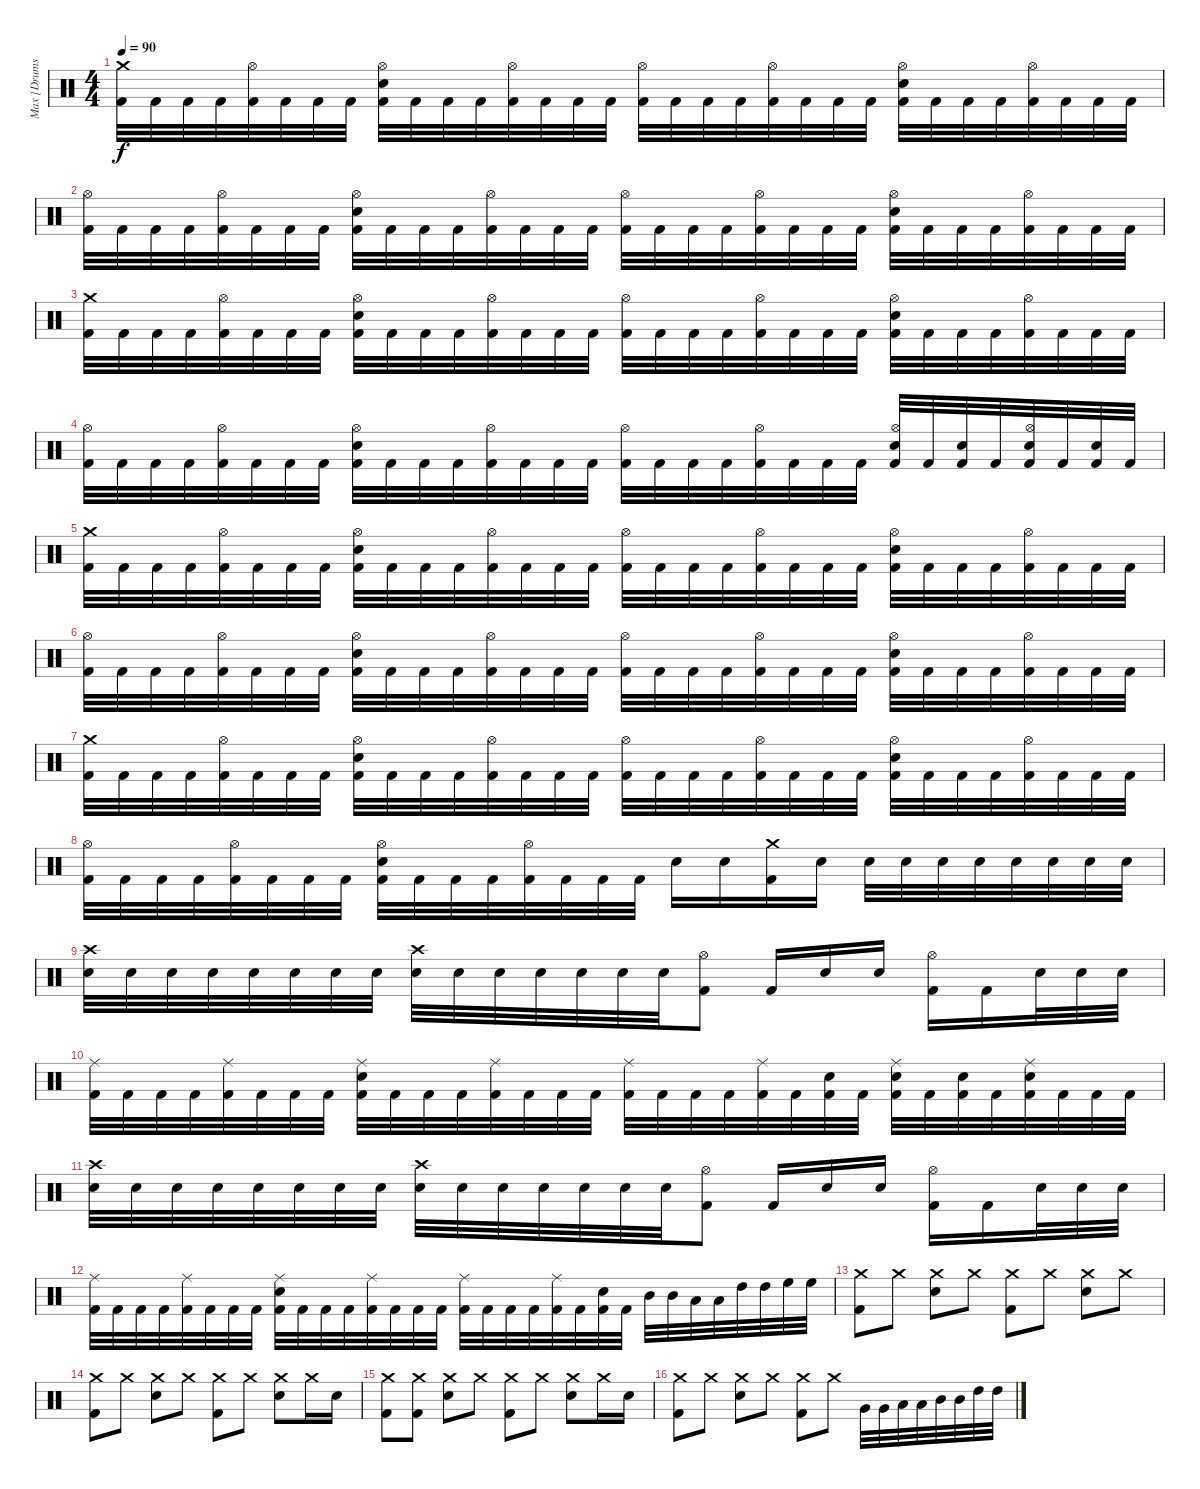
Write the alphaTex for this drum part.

\track ("Max [Drums]" "Max [Drums") {instrument percussion}
\staff {score}
\articulation defaults
\ts (4 4)
\tempo 90
\clef neutral
\ks c
("Crash medium (hit)" "Kick (hit) 2").32{dy f} "Kick (hit) 2".32 "Kick (hit) 2".32 "Kick (hit) 2".32 ("Hi-Hat (open)" "Kick (hit) 2").32 "Kick (hit) 2".32 "Kick (hit) 2".32 "Kick (hit) 2".32 ("Hi-Hat (open)" "Snare (hit) 2" "Kick (hit) 2").32 "Kick (hit) 2".32 "Kick (hit) 2".32 "Kick (hit) 2".32 ("Hi-Hat (open)" "Kick (hit) 2").32 "Kick (hit) 2".32 "Kick (hit) 2".32 "Kick (hit) 2".32 ("Hi-Hat (open)" "Kick (hit) 2").32 "Kick (hit) 2".32 "Kick (hit) 2".32 "Kick (hit) 2".32 ("Hi-Hat (open)" "Kick (hit) 2").32 "Kick (hit) 2".32 "Kick (hit) 2".32 "Kick (hit) 2".32 ("Hi-Hat (open)" "Snare (hit) 2" "Kick (hit) 2").32 "Kick (hit) 2".32 "Kick (hit) 2".32 "Kick (hit) 2".32 ("Hi-Hat (open)" "Kick (hit) 2").32 "Kick (hit) 2".32 "Kick (hit) 2".32 "Kick (hit) 2".32 |
("Hi-Hat (open)" "Kick (hit) 2").32 "Kick (hit) 2".32 "Kick (hit) 2".32 "Kick (hit) 2".32 ("Hi-Hat (open)" "Kick (hit) 2").32 "Kick (hit) 2".32 "Kick (hit) 2".32 "Kick (hit) 2".32 ("Hi-Hat (open)" "Snare (hit) 2" "Kick (hit) 2").32 "Kick (hit) 2".32 "Kick (hit) 2".32 "Kick (hit) 2".32 ("Hi-Hat (open)" "Kick (hit) 2").32 "Kick (hit) 2".32 "Kick (hit) 2".32 "Kick (hit) 2".32 ("Hi-Hat (open)" "Kick (hit) 2").32 "Kick (hit) 2".32 "Kick (hit) 2".32 "Kick (hit) 2".32 ("Hi-Hat (open)" "Kick (hit) 2").32 "Kick (hit) 2".32 "Kick (hit) 2".32 "Kick (hit) 2".32 ("Hi-Hat (open)" "Snare (hit) 2" "Kick (hit) 2").32 "Kick (hit) 2".32 "Kick (hit) 2".32 "Kick (hit) 2".32 ("Hi-Hat (open)" "Kick (hit) 2").32 "Kick (hit) 2".32 "Kick (hit) 2".32 "Kick (hit) 2".32 |
("Crash medium (hit)" "Kick (hit) 2").32 "Kick (hit) 2".32 "Kick (hit) 2".32 "Kick (hit) 2".32 ("Hi-Hat (open)" "Kick (hit) 2").32 "Kick (hit) 2".32 "Kick (hit) 2".32 "Kick (hit) 2".32 ("Hi-Hat (open)" "Snare (hit) 2" "Kick (hit) 2").32 "Kick (hit) 2".32 "Kick (hit) 2".32 "Kick (hit) 2".32 ("Hi-Hat (open)" "Kick (hit) 2").32 "Kick (hit) 2".32 "Kick (hit) 2".32 "Kick (hit) 2".32 ("Hi-Hat (open)" "Kick (hit) 2").32 "Kick (hit) 2".32 "Kick (hit) 2".32 "Kick (hit) 2".32 ("Hi-Hat (open)" "Kick (hit) 2").32 "Kick (hit) 2".32 "Kick (hit) 2".32 "Kick (hit) 2".32 ("Hi-Hat (open)" "Snare (hit) 2" "Kick (hit) 2").32 "Kick (hit) 2".32 "Kick (hit) 2".32 "Kick (hit) 2".32 ("Hi-Hat (open)" "Kick (hit) 2").32 "Kick (hit) 2".32 "Kick (hit) 2".32 "Kick (hit) 2".32 |
("Hi-Hat (open)" "Kick (hit) 2").32 "Kick (hit) 2".32 "Kick (hit) 2".32 "Kick (hit) 2".32 ("Hi-Hat (open)" "Kick (hit) 2").32 "Kick (hit) 2".32 "Kick (hit) 2".32 "Kick (hit) 2".32 ("Hi-Hat (open)" "Snare (hit) 2" "Kick (hit) 2").32 "Kick (hit) 2".32 "Kick (hit) 2".32 "Kick (hit) 2".32 ("Hi-Hat (open)" "Kick (hit) 2").32 "Kick (hit) 2".32 "Kick (hit) 2".32 "Kick (hit) 2".32 ("Hi-Hat (open)" "Kick (hit) 2").32 "Kick (hit) 2".32 "Kick (hit) 2".32 "Kick (hit) 2".32 ("Hi-Hat (open)" "Kick (hit) 2").32 "Kick (hit) 2".32 "Kick (hit) 2".32 "Kick (hit) 2".32 ("Hi-Hat (open)" "Snare (hit) 2" "Kick (hit) 2").32 "Kick (hit) 2".32 ("Snare (hit) 2" "Kick (hit) 2").32 "Kick (hit) 2".32 ("Hi-Hat (open)" "Snare (hit) 2" "Kick (hit) 2").32 "Kick (hit) 2".32 ("Snare (hit) 2" "Kick (hit) 2").32 "Kick (hit) 2".32 |
("Crash medium (hit)" "Kick (hit) 2").32 "Kick (hit) 2".32 "Kick (hit) 2".32 "Kick (hit) 2".32 ("Hi-Hat (open)" "Kick (hit) 2").32 "Kick (hit) 2".32 "Kick (hit) 2".32 "Kick (hit) 2".32 ("Hi-Hat (open)" "Snare (hit) 2" "Kick (hit) 2").32 "Kick (hit) 2".32 "Kick (hit) 2".32 "Kick (hit) 2".32 ("Hi-Hat (open)" "Kick (hit) 2").32 "Kick (hit) 2".32 "Kick (hit) 2".32 "Kick (hit) 2".32 ("Hi-Hat (open)" "Kick (hit) 2").32 "Kick (hit) 2".32 "Kick (hit) 2".32 "Kick (hit) 2".32 ("Hi-Hat (open)" "Kick (hit) 2").32 "Kick (hit) 2".32 "Kick (hit) 2".32 "Kick (hit) 2".32 ("Hi-Hat (open)" "Snare (hit) 2" "Kick (hit) 2").32 "Kick (hit) 2".32 "Kick (hit) 2".32 "Kick (hit) 2".32 ("Hi-Hat (open)" "Kick (hit) 2").32 "Kick (hit) 2".32 "Kick (hit) 2".32 "Kick (hit) 2".32 |
("Hi-Hat (open)" "Kick (hit) 2").32 "Kick (hit) 2".32 "Kick (hit) 2".32 "Kick (hit) 2".32 ("Hi-Hat (open)" "Kick (hit) 2").32 "Kick (hit) 2".32 "Kick (hit) 2".32 "Kick (hit) 2".32 ("Hi-Hat (open)" "Snare (hit) 2" "Kick (hit) 2").32 "Kick (hit) 2".32 "Kick (hit) 2".32 "Kick (hit) 2".32 ("Hi-Hat (open)" "Kick (hit) 2").32 "Kick (hit) 2".32 "Kick (hit) 2".32 "Kick (hit) 2".32 ("Hi-Hat (open)" "Kick (hit) 2").32 "Kick (hit) 2".32 "Kick (hit) 2".32 "Kick (hit) 2".32 ("Hi-Hat (open)" "Kick (hit) 2").32 "Kick (hit) 2".32 "Kick (hit) 2".32 "Kick (hit) 2".32 ("Hi-Hat (open)" "Snare (hit) 2" "Kick (hit) 2").32 "Kick (hit) 2".32 "Kick (hit) 2".32 "Kick (hit) 2".32 ("Hi-Hat (open)" "Kick (hit) 2").32 "Kick (hit) 2".32 "Kick (hit) 2".32 "Kick (hit) 2".32 |
("Crash medium (hit)" "Kick (hit) 2").32 "Kick (hit) 2".32 "Kick (hit) 2".32 "Kick (hit) 2".32 ("Hi-Hat (open)" "Kick (hit) 2").32 "Kick (hit) 2".32 "Kick (hit) 2".32 "Kick (hit) 2".32 ("Hi-Hat (open)" "Snare (hit) 2" "Kick (hit) 2").32 "Kick (hit) 2".32 "Kick (hit) 2".32 "Kick (hit) 2".32 ("Hi-Hat (open)" "Kick (hit) 2").32 "Kick (hit) 2".32 "Kick (hit) 2".32 "Kick (hit) 2".32 ("Hi-Hat (open)" "Kick (hit) 2").32 "Kick (hit) 2".32 "Kick (hit) 2".32 "Kick (hit) 2".32 ("Hi-Hat (open)" "Kick (hit) 2").32 "Kick (hit) 2".32 "Kick (hit) 2".32 "Kick (hit) 2".32 ("Hi-Hat (open)" "Snare (hit) 2" "Kick (hit) 2").32 "Kick (hit) 2".32 "Kick (hit) 2".32 "Kick (hit) 2".32 ("Hi-Hat (open)" "Kick (hit) 2").32 "Kick (hit) 2".32 "Kick (hit) 2".32 "Kick (hit) 2".32 |
("Hi-Hat (open)" "Kick (hit) 2").32 "Kick (hit) 2".32 "Kick (hit) 2".32 "Kick (hit) 2".32 ("Hi-Hat (open)" "Kick (hit) 2").32 "Kick (hit) 2".32 "Kick (hit) 2".32 "Kick (hit) 2".32 ("Hi-Hat (open)" "Snare (hit) 2" "Kick (hit) 2").32 "Kick (hit) 2".32 "Kick (hit) 2".32 "Kick (hit) 2".32 ("Hi-Hat (open)" "Kick (hit) 2").32 "Kick (hit) 2".32 "Kick (hit) 2".32 "Kick (hit) 2".32 "Snare (hit) 2".16 "Snare (hit) 2".16 ("Crash medium (hit)" "Kick (hit) 2").16 "Snare (hit) 2".16 "Snare (hit) 2".32 "Snare (hit) 2".32 "Snare (hit) 2".32 "Snare (hit) 2".32 "Snare (hit) 2".32 "Snare (hit) 2".32 "Snare (hit) 2".32 "Snare (hit) 2".32 |
("Crash high (hit)" "Snare (hit) 2").32 "Snare (hit) 2".32 "Snare (hit) 2".32 "Snare (hit) 2".32 "Snare (hit) 2".32 "Snare (hit) 2".32 "Snare (hit) 2".32 "Snare (hit) 2".32 ("Crash high (hit)" "Snare (hit) 2").32 "Snare (hit) 2".32 "Snare (hit) 2".32 "Snare (hit) 2".32 "Snare (hit) 2".32 "Snare (hit) 2".32 "Snare (hit) 2".32 ("Hi-Hat (open)" "Kick (hit) 2").8 "Kick (hit) 2".16 "Snare (hit) 2".16 "Snare (hit) 2".16 ("Hi-Hat (open)" "Kick (hit) 2").16 "Kick (hit) 2".16 "Snare (hit) 2".32 "Snare (hit) 2".32 "Snare (hit) 2".32 |
("Ride (middle)" "Kick (hit) 2").32 "Kick (hit) 2".32 "Kick (hit) 2".32 "Kick (hit) 2".32 ("Ride (middle)" "Kick (hit) 2").32 "Kick (hit) 2".32 "Kick (hit) 2".32 "Kick (hit) 2".32 ("Ride (middle)" "Snare (hit) 2" "Kick (hit) 2").32 "Kick (hit) 2".32 "Kick (hit) 2".32 "Kick (hit) 2".32 ("Ride (middle)" "Kick (hit) 2").32 "Kick (hit) 2".32 "Kick (hit) 2".32 "Kick (hit) 2".32 ("Ride (middle)" "Kick (hit) 2").32 "Kick (hit) 2".32 "Kick (hit) 2".32 "Kick (hit) 2".32 ("Ride (middle)" "Kick (hit) 2").32 "Kick (hit) 2".32 ("Snare (hit) 2" "Kick (hit) 2").32 "Kick (hit) 2".32 ("Ride (middle)" "Snare (hit) 2" "Kick (hit) 2").32 "Kick (hit) 2".32 ("Snare (hit) 2" "Kick (hit) 2").32 "Kick (hit) 2".32 ("Ride (middle)" "Snare (hit) 2" "Kick (hit) 2").32 "Kick (hit) 2".32 "Kick (hit) 2".32 "Kick (hit) 2".32 |
("Crash high (hit)" "Snare (hit) 2").32 "Snare (hit) 2".32 "Snare (hit) 2".32 "Snare (hit) 2".32 "Snare (hit) 2".32 "Snare (hit) 2".32 "Snare (hit) 2".32 "Snare (hit) 2".32 ("Crash high (hit)" "Snare (hit) 2").32 "Snare (hit) 2".32 "Snare (hit) 2".32 "Snare (hit) 2".32 "Snare (hit) 2".32 "Snare (hit) 2".32 "Snare (hit) 2".32 ("Hi-Hat (open)" "Kick (hit) 2").8 "Kick (hit) 2".16 "Snare (hit) 2".16 "Snare (hit) 2".16 ("Hi-Hat (open)" "Kick (hit) 2").16 "Kick (hit) 2".16 "Snare (hit) 2".32 "Snare (hit) 2".32 "Snare (hit) 2".32 |
("Ride (middle)" "Kick (hit) 2").32 "Kick (hit) 2".32 "Kick (hit) 2".32 "Kick (hit) 2".32 ("Ride (middle)" "Kick (hit) 2").32 "Kick (hit) 2".32 "Kick (hit) 2".32 "Kick (hit) 2".32 ("Ride (middle)" "Snare (hit) 2" "Kick (hit) 2").32 "Kick (hit) 2".32 "Kick (hit) 2".32 "Kick (hit) 2".32 ("Ride (middle)" "Kick (hit) 2").32 "Kick (hit) 2".32 "Kick (hit) 2".32 "Kick (hit) 2".32 ("Ride (middle)" "Kick (hit) 2").32 "Kick (hit) 2".32 "Kick (hit) 2".32 "Kick (hit) 2".32 ("Ride (middle)" "Kick (hit) 2").32 "Kick (hit) 2".32 ("Snare (hit) 2" "Kick (hit) 2").32 "Kick (hit) 2".32 "Mid Tom (hit)".32 "Mid Tom (hit)".32 "Low Tom (hit)".32 "Low Tom (hit)".32 "High Tom (hit)".32 "High Tom (hit)".32 "High Floor Tom (hit)".32 "High Floor Tom (hit)".32 |
("Crash medium (hit)" "Kick (hit) 2").8 "Crash medium (hit)".8 ("Crash medium (hit)" "Snare (hit) 2").8 "Crash medium (hit)".8 ("Crash medium (hit)" "Kick (hit) 2").8 "Crash medium (hit)".8 ("Crash medium (hit)" "Snare (hit) 2").8 "Crash medium (hit)".8 |
("Crash medium (hit)" "Kick (hit) 2").8 "Crash medium (hit)".8 ("Crash medium (hit)" "Snare (hit) 2").8 "Crash medium (hit)".8 ("Crash medium (hit)" "Kick (hit) 2").8 "Crash medium (hit)".8 ("Crash medium (hit)" "Snare (hit) 2").8 "Crash medium (hit)".16 "Snare (hit) 2".16 |
("Crash medium (hit)" "Kick (hit) 2").8 ("Crash medium (hit)" "Kick (hit) 2").8 ("Crash medium (hit)" "Snare (hit) 2").8 "Crash medium (hit)".8 ("Crash medium (hit)" "Kick (hit) 2").8 "Crash medium (hit)".8 ("Crash medium (hit)" "Snare (hit) 2").8 "Crash medium (hit)".16 "Snare (hit) 2".16 |
("Crash medium (hit)" "Kick (hit) 2").8 "Crash medium (hit)".8 ("Crash medium (hit)" "Snare (hit) 2").8 "Crash medium (hit)".8 ("Crash medium (hit)" "Kick (hit) 2").8 "Crash medium (hit)".8 "Very Low Tom (hit)".32 "Very Low Tom (hit)".32 "Low Tom (hit)".32 "Low Tom (hit)".32 "Mid Tom (hit)".32 "Mid Tom (hit)".32 "High Tom (hit)".32 "High Tom (hit)".32
